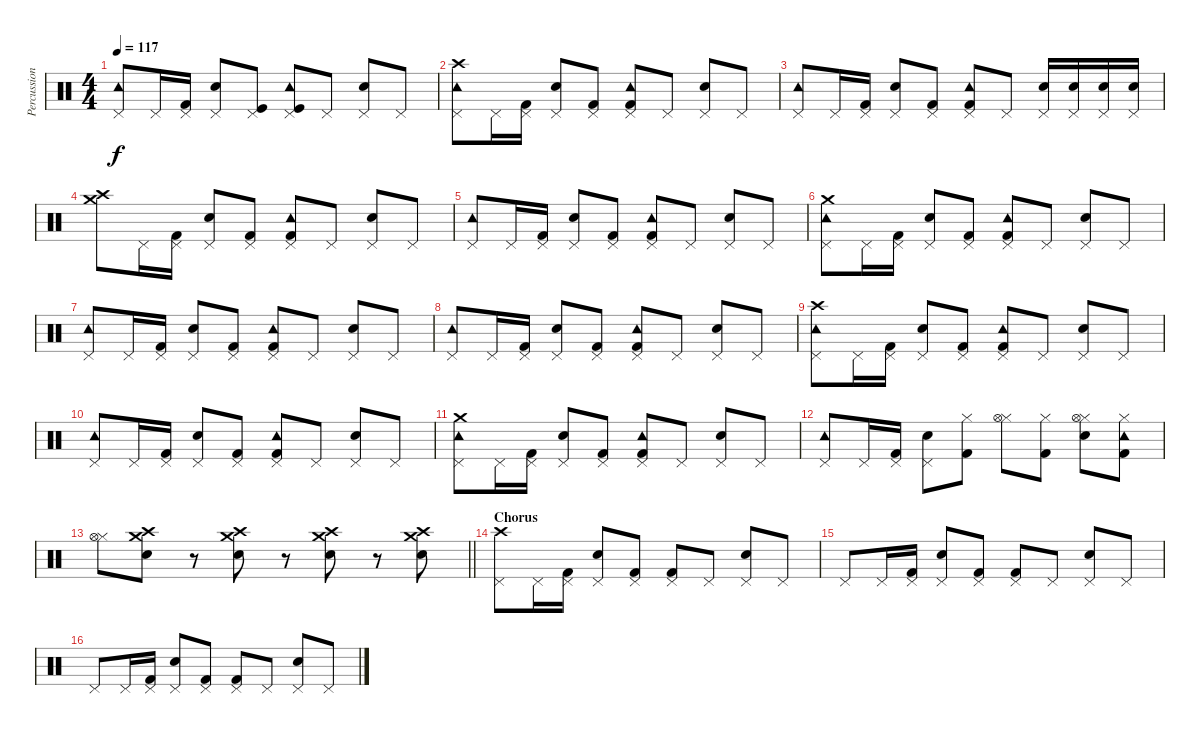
\track ("Percussion" "Percussion") {instrument percussion}
\staff {score}
\articulation defaults
\ts (4 4)
\tempo 117
\clef neutral
\ks c
("Pedal Hi-Hat (hit)" "Tambourine (hit)").8{dy f} "Pedal Hi-Hat (hit)".16 ("Pedal Hi-Hat (hit)" "Kick (hit) 2").16 ("Pedal Hi-Hat (hit)" "Electric Snare (hit)").8 ("Pedal Hi-Hat (hit)" "Kick (hit)").8 ("Pedal Hi-Hat (hit)" "Kick (hit)" "Tambourine (hit)").8 "Pedal Hi-Hat (hit)".8 ("Pedal Hi-Hat (hit)" "Electric Snare (hit)").8 "Pedal Hi-Hat (hit)".8 |
("Pedal Hi-Hat (hit)" "Crash high (hit)" "Tambourine (hit)").8 "Pedal Hi-Hat (hit)".16 ("Pedal Hi-Hat (hit)" "Kick (hit) 2").16 ("Pedal Hi-Hat (hit)" "Electric Snare (hit)").8 ("Pedal Hi-Hat (hit)" "Kick (hit) 2").8 ("Pedal Hi-Hat (hit)" "Kick (hit) 2" "Tambourine (hit)").8 "Pedal Hi-Hat (hit)".8 ("Pedal Hi-Hat (hit)" "Electric Snare (hit)").8 "Pedal Hi-Hat (hit)".8 |
("Pedal Hi-Hat (hit)" "Tambourine (hit)").8 "Pedal Hi-Hat (hit)".16 ("Pedal Hi-Hat (hit)" "Kick (hit) 2").16 ("Pedal Hi-Hat (hit)" "Electric Snare (hit)").8 ("Pedal Hi-Hat (hit)" "Kick (hit) 2").8 ("Pedal Hi-Hat (hit)" "Kick (hit) 2" "Tambourine (hit)").8 "Pedal Hi-Hat (hit)".8 ("Pedal Hi-Hat (hit)" "Snare (hit) 2").16 ("Pedal Hi-Hat (hit)" "Snare (hit) 2").16 ("Pedal Hi-Hat (hit)" "Snare (hit) 2").16 ("Pedal Hi-Hat (hit)" "Snare (hit) 2").16 |
("Crash high (hit)" "Crash medium (hit)").8 "Pedal Hi-Hat (hit)".16 ("Pedal Hi-Hat (hit)" "Kick (hit) 2").16 ("Pedal Hi-Hat (hit)" "Electric Snare (hit)").8 ("Pedal Hi-Hat (hit)" "Kick (hit) 2").8 ("Pedal Hi-Hat (hit)" "Kick (hit) 2" "Tambourine (hit)").8 "Pedal Hi-Hat (hit)".8 ("Pedal Hi-Hat (hit)" "Electric Snare (hit)").8 "Pedal Hi-Hat (hit)".8 |
("Pedal Hi-Hat (hit)" "Tambourine (hit)").8 "Pedal Hi-Hat (hit)".16 ("Pedal Hi-Hat (hit)" "Kick (hit) 2").16 ("Pedal Hi-Hat (hit)" "Electric Snare (hit)").8 ("Pedal Hi-Hat (hit)" "Kick (hit) 2").8 ("Pedal Hi-Hat (hit)" "Kick (hit) 2" "Tambourine (hit)").8 "Pedal Hi-Hat (hit)".8 ("Pedal Hi-Hat (hit)" "Electric Snare (hit)").8 "Pedal Hi-Hat (hit)".8 |
("Pedal Hi-Hat (hit)" "Crash medium (hit)" "Tambourine (hit)").8 "Pedal Hi-Hat (hit)".16 ("Pedal Hi-Hat (hit)" "Kick (hit) 2").16 ("Pedal Hi-Hat (hit)" "Electric Snare (hit)").8 ("Pedal Hi-Hat (hit)" "Kick (hit) 2").8 ("Pedal Hi-Hat (hit)" "Kick (hit) 2" "Tambourine (hit)").8 "Pedal Hi-Hat (hit)".8 ("Pedal Hi-Hat (hit)" "Electric Snare (hit)").8 "Pedal Hi-Hat (hit)".8 |
("Pedal Hi-Hat (hit)" "Tambourine (hit)").8 "Pedal Hi-Hat (hit)".16 ("Pedal Hi-Hat (hit)" "Kick (hit) 2").16 ("Pedal Hi-Hat (hit)" "Electric Snare (hit)").8 ("Pedal Hi-Hat (hit)" "Kick (hit) 2").8 ("Pedal Hi-Hat (hit)" "Kick (hit) 2" "Tambourine (hit)").8 "Pedal Hi-Hat (hit)".8 ("Pedal Hi-Hat (hit)" "Electric Snare (hit)").8 "Pedal Hi-Hat (hit)".8 |
("Pedal Hi-Hat (hit)" "Tambourine (hit)").8 "Pedal Hi-Hat (hit)".16 ("Pedal Hi-Hat (hit)" "Kick (hit) 2").16 ("Pedal Hi-Hat (hit)" "Electric Snare (hit)").8 ("Pedal Hi-Hat (hit)" "Kick (hit) 2").8 ("Pedal Hi-Hat (hit)" "Kick (hit) 2" "Tambourine (hit)").8 "Pedal Hi-Hat (hit)".8 ("Pedal Hi-Hat (hit)" "Electric Snare (hit)").8 "Pedal Hi-Hat (hit)".8 |
("Pedal Hi-Hat (hit)" "Crash high (hit)" "Tambourine (hit)").8 "Pedal Hi-Hat (hit)".16 ("Pedal Hi-Hat (hit)" "Kick (hit) 2").16 ("Pedal Hi-Hat (hit)" "Electric Snare (hit)").8 ("Pedal Hi-Hat (hit)" "Kick (hit) 2").8 ("Pedal Hi-Hat (hit)" "Kick (hit) 2" "Tambourine (hit)").8 "Pedal Hi-Hat (hit)".8 ("Pedal Hi-Hat (hit)" "Electric Snare (hit)").8 "Pedal Hi-Hat (hit)".8 |
("Pedal Hi-Hat (hit)" "Tambourine (hit)").8 "Pedal Hi-Hat (hit)".16 ("Pedal Hi-Hat (hit)" "Kick (hit) 2").16 ("Pedal Hi-Hat (hit)" "Electric Snare (hit)").8 ("Pedal Hi-Hat (hit)" "Kick (hit) 2").8 ("Pedal Hi-Hat (hit)" "Kick (hit) 2" "Tambourine (hit)").8 "Pedal Hi-Hat (hit)".8 ("Pedal Hi-Hat (hit)" "Electric Snare (hit)").8 "Pedal Hi-Hat (hit)".8 |
("Pedal Hi-Hat (hit)" "Crash medium (hit)" "Tambourine (hit)").8 "Pedal Hi-Hat (hit)".16 ("Pedal Hi-Hat (hit)" "Kick (hit) 2").16 ("Pedal Hi-Hat (hit)" "Electric Snare (hit)").8 ("Pedal Hi-Hat (hit)" "Kick (hit) 2").8 ("Pedal Hi-Hat (hit)" "Kick (hit) 2" "Tambourine (hit)").8 "Pedal Hi-Hat (hit)".8 ("Pedal Hi-Hat (hit)" "Electric Snare (hit)").8 "Pedal Hi-Hat (hit)".8 |
("Pedal Hi-Hat (hit)" "Tambourine (hit)").8 "Pedal Hi-Hat (hit)".16 ("Pedal Hi-Hat (hit)" "Kick (hit) 2").16 ("Pedal Hi-Hat (hit)" "Electric Snare (hit)").8 ("Hi-Hat (closed)" "Kick (hit) 2").8 ("Hi-Hat (closed)" "Hi-Hat (open)").8 ("Hi-Hat (closed)" "Kick (hit) 2").8 ("Hi-Hat (closed)" "Hi-Hat (open)" "Electric Snare (hit)").8 ("Hi-Hat (closed)" "Kick (hit) 2" "Tambourine (hit)").8 |
\barLineRight lightlight
("Hi-Hat (closed)" "Hi-Hat (open)").8 ("Crash high (hit)" "Electric Snare (hit)" "Crash medium (hit)").8 r.8 ("Crash high (hit)" "Snare (hit) 2" "Crash medium (hit)").8 r.8 ("Crash high (hit)" "Snare (hit) 2" "Crash medium (hit)").8 r.8 ("Crash high (hit)" "Snare (hit) 2" "Crash medium (hit)").8 |
\section ("" "Chorus")
("Pedal Hi-Hat (hit)" "Crash high (hit)").8 "Pedal Hi-Hat (hit)".16 ("Pedal Hi-Hat (hit)" "Kick (hit) 2").16 ("Pedal Hi-Hat (hit)" "Electric Snare (hit)").8 ("Pedal Hi-Hat (hit)" "Kick (hit) 2").8 ("Pedal Hi-Hat (hit)" "Kick (hit) 2").8 "Pedal Hi-Hat (hit)".8 ("Pedal Hi-Hat (hit)" "Electric Snare (hit)").8 "Pedal Hi-Hat (hit)".8 |
"Pedal Hi-Hat (hit)".8 "Pedal Hi-Hat (hit)".16 ("Pedal Hi-Hat (hit)" "Kick (hit) 2").16 ("Pedal Hi-Hat (hit)" "Electric Snare (hit)").8 ("Pedal Hi-Hat (hit)" "Kick (hit) 2").8 ("Pedal Hi-Hat (hit)" "Kick (hit) 2").8 "Pedal Hi-Hat (hit)".8 ("Pedal Hi-Hat (hit)" "Electric Snare (hit)").8 "Pedal Hi-Hat (hit)".8 |
"Pedal Hi-Hat (hit)".8 "Pedal Hi-Hat (hit)".16 ("Pedal Hi-Hat (hit)" "Kick (hit) 2").16 ("Pedal Hi-Hat (hit)" "Electric Snare (hit)").8 ("Pedal Hi-Hat (hit)" "Kick (hit) 2").8 ("Pedal Hi-Hat (hit)" "Kick (hit) 2").8 "Pedal Hi-Hat (hit)".8 ("Pedal Hi-Hat (hit)" "Electric Snare (hit)").8 "Pedal Hi-Hat (hit)".8
